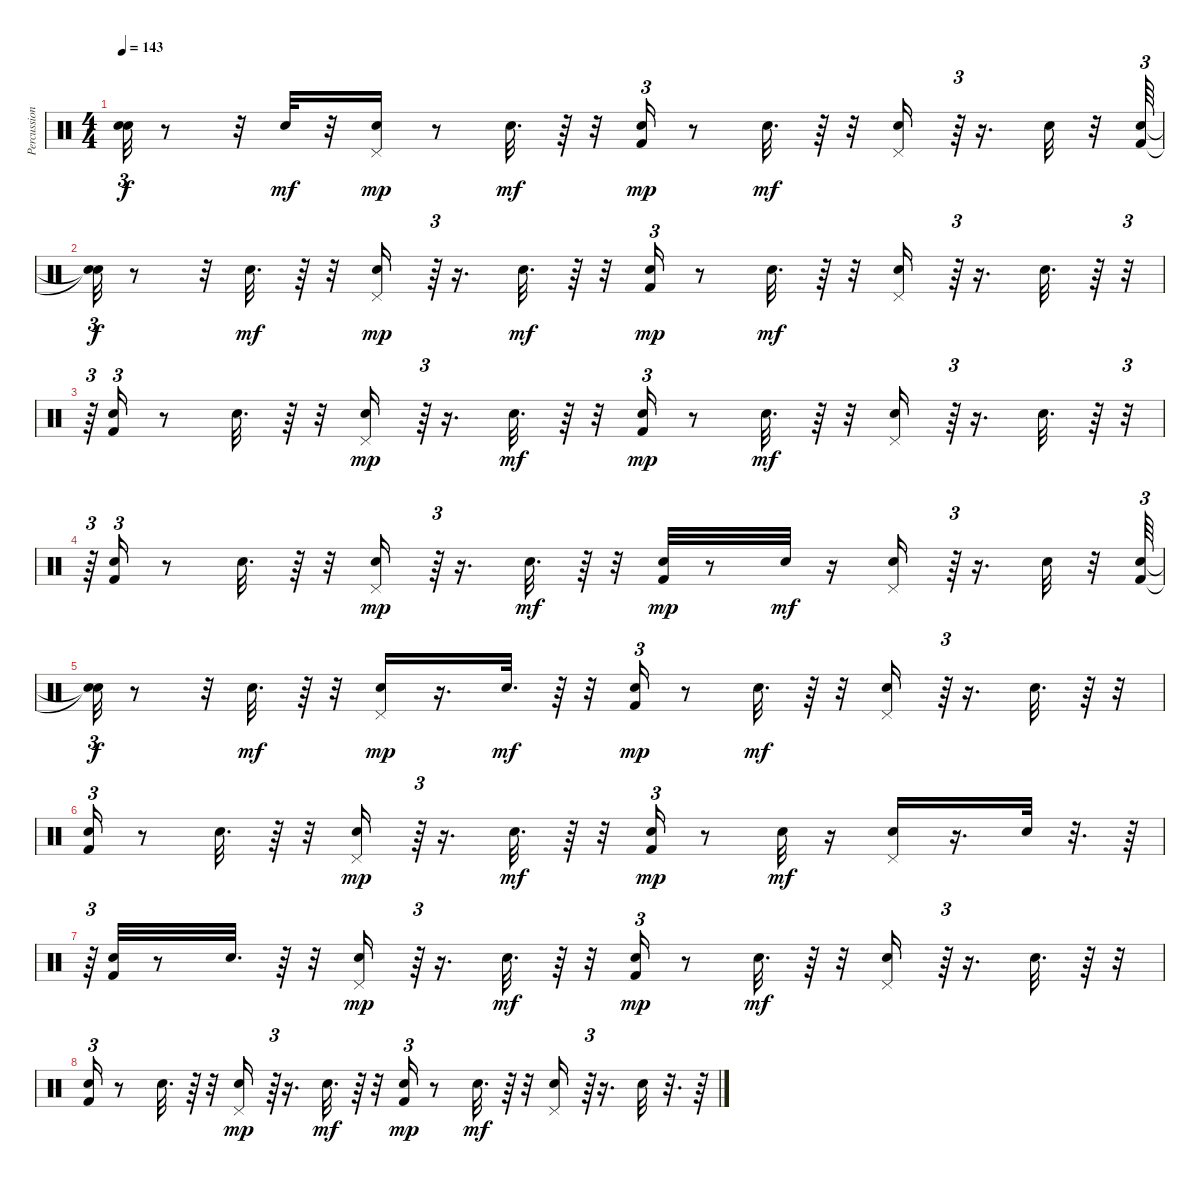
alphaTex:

\track ("Percussion" "Percussion") {instrument percussion}
\staff {score}
\articulation defaults
\ts (4 4)
\tempo 143
\clef neutral
\ks c
("Snare (hit)"{t} "Snare (hit)"{t}).32{tu (3 2) dy f} r.8 r.32 "Snare (hit) 2".32{dy mf} r.32 ("Pedal Hi-Hat (hit)" "Hand Clap (hit)").16{dy mp} r.8 "Hand Clap (hit)".32{d dy mf} r.64 r.32 ("Kick (hit) 2" "Snare (hit) 2").16{tu (3 2) dy mp} r.8 "Snare (hit) 2".32{d dy mf} r.64 r.32 ("Hand Clap (hit)" "Pedal Hi-Hat (hit)").16 r.64{tu (3 2)} r.16{d} "Hand Clap (hit)".32 r.32 ("Kick (hit) 2" "Snare (hit) 2").64{tu (3 2)} |
("Snare (hit)"{t} "Snare (hit)"{t}).32{tu (3 2) dy f} r.8 r.32 "Snare (hit) 2".32{d dy mf} r.64 r.32 ("Hand Clap (hit)" "Pedal Hi-Hat (hit)").16{dy mp} r.64{tu (3 2)} r.16{d} "Hand Clap (hit)".32{d dy mf} r.64 r.32 ("Kick (hit) 2" "Snare (hit) 2").16{tu (3 2) dy mp} r.8 "Snare (hit) 2".32{d dy mf} r.64 r.32 ("Hand Clap (hit)" "Pedal Hi-Hat (hit)").16 r.64{tu (3 2)} r.16{d} "Hand Clap (hit)".32{d} r.64 r.32{tu (3 2)} |
r.64{tu (3 2)} ("Kick (hit) 2" "Snare (hit) 2").16{tu (3 2)} r.8 "Snare (hit) 2".32{d} r.64 r.32 ("Hand Clap (hit)" "Pedal Hi-Hat (hit)").16{dy mp} r.64{tu (3 2)} r.16{d} "Hand Clap (hit)".32{d dy mf} r.64 r.32 ("Kick (hit) 2" "Snare (hit) 2").16{tu (3 2) dy mp} r.8 "Snare (hit) 2".32{d dy mf} r.64 r.32 ("Hand Clap (hit)" "Pedal Hi-Hat (hit)").16 r.64{tu (3 2)} r.16{d} "Hand Clap (hit)".32{d} r.64 r.32{tu (3 2)} |
r.64{tu (3 2)} ("Kick (hit) 2" "Snare (hit) 2").16{tu (3 2)} r.8 "Snare (hit) 2".32{d} r.64 r.32 ("Hand Clap (hit)" "Pedal Hi-Hat (hit)").16{dy mp} r.64{tu (3 2)} r.16{d} "Hand Clap (hit)".32{d dy mf} r.64 r.32 ("Kick (hit) 2" "Snare (hit) 2").32{dy mp} r.8 "Snare (hit) 2".32{dy mf} r.16 ("Hand Clap (hit)" "Pedal Hi-Hat (hit)").16 r.64{tu (3 2)} r.16{d} "Hand Clap (hit)".32 r.32 ("Kick (hit) 2" "Snare (hit) 2").64{tu (3 2)} |
("Snare (hit)"{t} "Snare (hit)"{t}).32{tu (3 2) dy f} r.8 r.32 "Snare (hit) 2".32{d dy mf} r.64 r.32 ("Pedal Hi-Hat (hit)" "Hand Clap (hit)").16{dy mp} r.16{d} "Hand Clap (hit)".32{d dy mf} r.64 r.32 ("Kick (hit) 2" "Snare (hit) 2").16{tu (3 2) dy mp} r.8 "Snare (hit) 2".32{d dy mf} r.64 r.32 ("Hand Clap (hit)" "Pedal Hi-Hat (hit)").16 r.64{tu (3 2)} r.16{d} "Hand Clap (hit)".32{d} r.64 r.32 |
("Kick (hit) 2" "Snare (hit) 2").16{tu (3 2)} r.8 "Snare (hit) 2".32{d} r.64 r.32 ("Hand Clap (hit)" "Pedal Hi-Hat (hit)").16{dy mp} r.64{tu (3 2)} r.16{d} "Hand Clap (hit)".32{d dy mf} r.64 r.32 ("Kick (hit) 2" "Snare (hit) 2").16{tu (3 2) dy mp} r.8 "Snare (hit) 2".32{dy mf} r.16 ("Hand Clap (hit)" "Pedal Hi-Hat (hit)").16 r.16{d} "Hand Clap (hit)".32 r.32{d} r.64 |
r.64{tu (3 2)} ("Kick (hit) 2" "Snare (hit) 2").32 r.8 "Snare (hit) 2".32{d} r.64 r.32 ("Hand Clap (hit)" "Pedal Hi-Hat (hit)").16{dy mp} r.64{tu (3 2)} r.16{d} "Hand Clap (hit)".32{d dy mf} r.64 r.32 ("Kick (hit) 2" "Snare (hit) 2").16{tu (3 2) dy mp} r.8 "Snare (hit) 2".32{d dy mf} r.64 r.32 ("Hand Clap (hit)" "Pedal Hi-Hat (hit)").16 r.64{tu (3 2)} r.16{d} "Hand Clap (hit)".32{d} r.64 r.32 |
("Kick (hit) 2" "Snare (hit) 2").16{tu (3 2)} r.8 "Snare (hit) 2".32{d} r.64 r.32 ("Hand Clap (hit)" "Pedal Hi-Hat (hit)").16{dy mp} r.64{tu (3 2)} r.16{d} "Hand Clap (hit)".32{d dy mf} r.64 r.32 ("Kick (hit) 2" "Snare (hit) 2").16{tu (3 2) dy mp} r.8 "Snare (hit) 2".32{d dy mf} r.64 r.32 ("Hand Clap (hit)" "Pedal Hi-Hat (hit)").16 r.64{tu (3 2)} r.16{d} "Hand Clap (hit)".32 r.32{d} r.64
